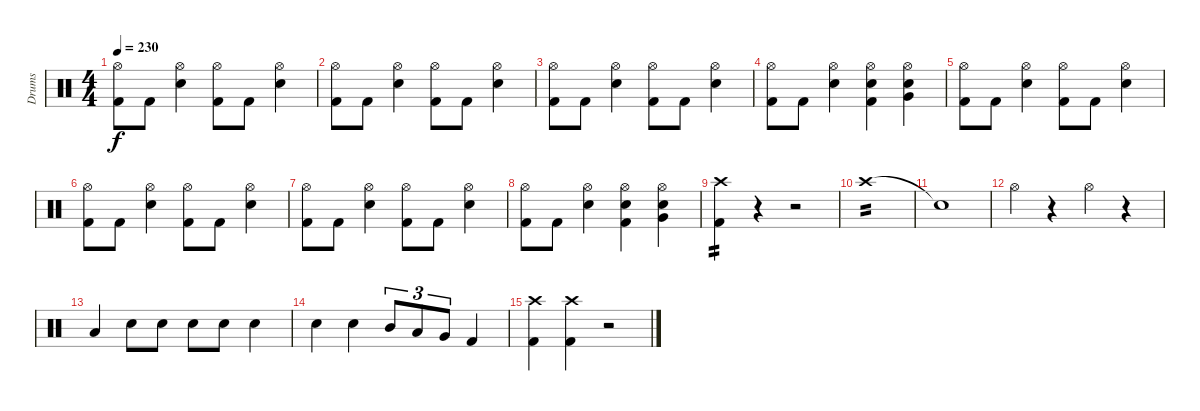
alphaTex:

\track ("Drums" "Drums") {instrument percussion}
\staff {score}
\articulation defaults
\ts (4 4)
\tempo 230
\clef neutral
\ks c
("Hi-Hat (open)" "Kick (hit) 2").8{dy f} "Kick (hit) 2".8 ("Hi-Hat (open)" "Electric Snare (hit)").4 ("Hi-Hat (open)" "Kick (hit) 2").8 "Kick (hit) 2".8 ("Hi-Hat (open)" "Electric Snare (hit)").4 |
("Hi-Hat (open)" "Kick (hit) 2").8 "Kick (hit) 2".8 ("Hi-Hat (open)" "Electric Snare (hit)").4 ("Hi-Hat (open)" "Kick (hit) 2").8 "Kick (hit) 2".8 ("Hi-Hat (open)" "Electric Snare (hit)").4 |
("Hi-Hat (open)" "Kick (hit) 2").8 "Kick (hit) 2".8 ("Hi-Hat (open)" "Electric Snare (hit)").4 ("Hi-Hat (open)" "Kick (hit) 2").8 "Kick (hit) 2".8 ("Hi-Hat (open)" "Electric Snare (hit)").4 |
("Hi-Hat (open)" "Kick (hit) 2").8 "Kick (hit) 2".8 ("Hi-Hat (open)" "Electric Snare (hit)").4 ("Hi-Hat (open)" "Electric Snare (hit)" "Kick (hit) 2").4 ("Hi-Hat (open)" "Electric Snare (hit)" "Very Low Tom (hit)").4 |
("Hi-Hat (open)" "Kick (hit) 2").8 "Kick (hit) 2".8 ("Hi-Hat (open)" "Electric Snare (hit)").4 ("Hi-Hat (open)" "Kick (hit) 2").8 "Kick (hit) 2".8 ("Hi-Hat (open)" "Electric Snare (hit)").4 |
("Hi-Hat (open)" "Kick (hit) 2").8 "Kick (hit) 2".8 ("Hi-Hat (open)" "Electric Snare (hit)").4 ("Hi-Hat (open)" "Kick (hit) 2").8 "Kick (hit) 2".8 ("Hi-Hat (open)" "Electric Snare (hit)").4 |
("Hi-Hat (open)" "Kick (hit) 2").8 "Kick (hit) 2".8 ("Hi-Hat (open)" "Electric Snare (hit)").4 ("Hi-Hat (open)" "Kick (hit) 2").8 "Kick (hit) 2".8 ("Hi-Hat (open)" "Electric Snare (hit)").4 |
("Hi-Hat (open)" "Kick (hit) 2").8 "Kick (hit) 2".8 ("Hi-Hat (open)" "Electric Snare (hit)").4 ("Hi-Hat (open)" "Electric Snare (hit)" "Kick (hit) 2").4 ("Hi-Hat (open)" "Electric Snare (hit)" "Very Low Tom (hit)").4 |
("Crash high (hit)" "Kick (hit) 2").4{tp 2} r.4 r.2 |
"Crash high (hit)".1{tp 2} |
"Snare (hit)"{t}.1 |
"Hi-Hat (open)".4 r.4 "Hi-Hat (open)".4 r.4 |
"Low Tom (hit)".4 "Electric Snare (hit)".8 "Electric Snare (hit)".8 "Electric Snare (hit)".8 "Electric Snare (hit)".8 "Electric Snare (hit)".4 |
"Electric Snare (hit)".4 "Electric Snare (hit)".4 "Mid Tom (hit)".8{tu (3 2)} "Low Tom (hit)".8{tu (3 2)} "Very Low Tom (hit)".8{tu (3 2)} "Kick (hit) 2".4 |
("Crash high (hit)" "Kick (hit) 2").4 ("Crash high (hit)" "Kick (hit) 2").4 r.2
